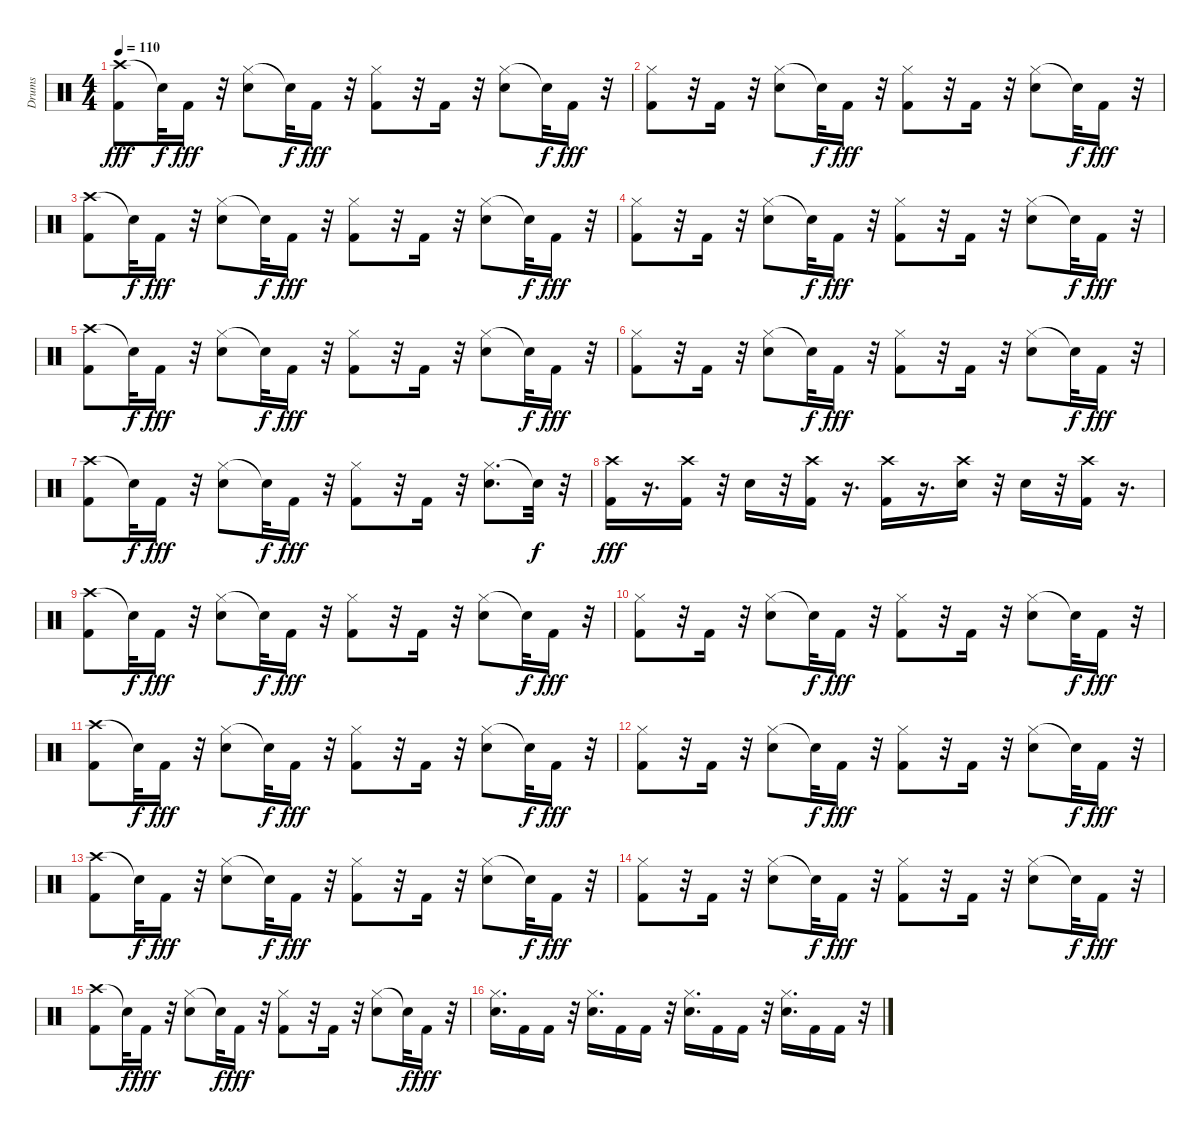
\track ("Drums" "Drums") {instrument percussion}
\staff {score}
\articulation defaults
\ts (4 4)
\tempo 110
\clef neutral
\ks c
("Crash high (hit)" "Kick (hit) 2").8{dy fff} "Snare (hit)"{t}.32{dy f} "Kick (hit) 2".16{dy fff} r.32 ("Hi-Hat (closed)" "Snare (hit) 2").8 "Snare (hit)"{t}.32{dy f} "Kick (hit) 2".16{dy fff} r.32 ("Kick (hit) 2" "Hi-Hat (closed)").8 r.32 "Kick (hit) 2".16 r.32 ("Hi-Hat (closed)" "Snare (hit) 2").8 "Snare (hit)"{t}.32{dy f} "Kick (hit) 2".16{dy fff} r.32 |
("Kick (hit) 2" "Hi-Hat (closed)").8 r.32 "Kick (hit) 2".16 r.32 ("Hi-Hat (closed)" "Snare (hit) 2").8 "Snare (hit)"{t}.32{dy f} "Kick (hit) 2".16{dy fff} r.32 ("Kick (hit) 2" "Hi-Hat (closed)").8 r.32 "Kick (hit) 2".16 r.32 ("Hi-Hat (closed)" "Snare (hit) 2").8 "Snare (hit)"{t}.32{dy f} "Kick (hit) 2".16{dy fff} r.32 |
("Crash high (hit)" "Kick (hit) 2").8 "Snare (hit)"{t}.32{dy f} "Kick (hit) 2".16{dy fff} r.32 ("Hi-Hat (closed)" "Snare (hit) 2").8 "Snare (hit)"{t}.32{dy f} "Kick (hit) 2".16{dy fff} r.32 ("Kick (hit) 2" "Hi-Hat (closed)").8 r.32 "Kick (hit) 2".16 r.32 ("Hi-Hat (closed)" "Snare (hit) 2").8 "Snare (hit)"{t}.32{dy f} "Kick (hit) 2".16{dy fff} r.32 |
("Kick (hit) 2" "Hi-Hat (closed)").8 r.32 "Kick (hit) 2".16 r.32 ("Hi-Hat (closed)" "Snare (hit) 2").8 "Snare (hit)"{t}.32{dy f} "Kick (hit) 2".16{dy fff} r.32 ("Kick (hit) 2" "Hi-Hat (closed)").8 r.32 "Kick (hit) 2".16 r.32 ("Hi-Hat (closed)" "Snare (hit) 2").8 "Snare (hit)"{t}.32{dy f} "Kick (hit) 2".16{dy fff} r.32 |
("Crash high (hit)" "Kick (hit) 2").8 "Snare (hit)"{t}.32{dy f} "Kick (hit) 2".16{dy fff} r.32 ("Hi-Hat (closed)" "Snare (hit) 2").8 "Snare (hit)"{t}.32{dy f} "Kick (hit) 2".16{dy fff} r.32 ("Kick (hit) 2" "Hi-Hat (closed)").8 r.32 "Kick (hit) 2".16 r.32 ("Hi-Hat (closed)" "Snare (hit) 2").8 "Snare (hit)"{t}.32{dy f} "Kick (hit) 2".16{dy fff} r.32 |
("Kick (hit) 2" "Hi-Hat (closed)").8 r.32 "Kick (hit) 2".16 r.32 ("Hi-Hat (closed)" "Snare (hit) 2").8 "Snare (hit)"{t}.32{dy f} "Kick (hit) 2".16{dy fff} r.32 ("Kick (hit) 2" "Hi-Hat (closed)").8 r.32 "Kick (hit) 2".16 r.32 ("Hi-Hat (closed)" "Snare (hit) 2").8 "Snare (hit)"{t}.32{dy f} "Kick (hit) 2".16{dy fff} r.32 |
("Crash high (hit)" "Kick (hit) 2").8 "Snare (hit)"{t}.32{dy f} "Kick (hit) 2".16{dy fff} r.32 ("Hi-Hat (closed)" "Snare (hit) 2").8 "Snare (hit)"{t}.32{dy f} "Kick (hit) 2".16{dy fff} r.32 ("Kick (hit) 2" "Hi-Hat (closed)").8 r.32 "Kick (hit) 2".16 r.32 ("Hi-Hat (closed)" "Snare (hit) 2").8{d} "Snare (hit)"{t}.32{dy f} r.32 |
("Kick (hit) 2" "Crash high (hit)").16{dy fff} r.16{d} ("Kick (hit) 2" "Crash high (hit)").16 r.32 "Snare (hit) 2".16 r.32 ("Kick (hit) 2" "Crash high (hit)").16 r.16{d} ("Kick (hit) 2" "Crash high (hit)").16 r.16{d} ("Snare (hit)" "Crash high (hit)").16 r.32 "Snare (hit) 2".16 r.32 ("Kick (hit) 2" "Crash high (hit)").16 r.16{d} |
("Crash high (hit)" "Kick (hit) 2").8 "Snare (hit)"{t}.32{dy f} "Kick (hit) 2".16{dy fff} r.32 ("Hi-Hat (closed)" "Snare (hit) 2").8 "Snare (hit)"{t}.32{dy f} "Kick (hit) 2".16{dy fff} r.32 ("Kick (hit) 2" "Hi-Hat (closed)").8 r.32 "Kick (hit) 2".16 r.32 ("Hi-Hat (closed)" "Snare (hit) 2").8 "Snare (hit)"{t}.32{dy f} "Kick (hit) 2".16{dy fff} r.32 |
("Kick (hit) 2" "Hi-Hat (closed)").8 r.32 "Kick (hit) 2".16 r.32 ("Hi-Hat (closed)" "Snare (hit) 2").8 "Snare (hit)"{t}.32{dy f} "Kick (hit) 2".16{dy fff} r.32 ("Kick (hit) 2" "Hi-Hat (closed)").8 r.32 "Kick (hit) 2".16 r.32 ("Hi-Hat (closed)" "Snare (hit) 2").8 "Snare (hit)"{t}.32{dy f} "Kick (hit) 2".16{dy fff} r.32 |
("Crash high (hit)" "Kick (hit) 2").8 "Snare (hit)"{t}.32{dy f} "Kick (hit) 2".16{dy fff} r.32 ("Hi-Hat (closed)" "Snare (hit) 2").8 "Snare (hit)"{t}.32{dy f} "Kick (hit) 2".16{dy fff} r.32 ("Kick (hit) 2" "Hi-Hat (closed)").8 r.32 "Kick (hit) 2".16 r.32 ("Hi-Hat (closed)" "Snare (hit) 2").8 "Snare (hit)"{t}.32{dy f} "Kick (hit) 2".16{dy fff} r.32 |
("Kick (hit) 2" "Hi-Hat (closed)").8 r.32 "Kick (hit) 2".16 r.32 ("Hi-Hat (closed)" "Snare (hit) 2").8 "Snare (hit)"{t}.32{dy f} "Kick (hit) 2".16{dy fff} r.32 ("Kick (hit) 2" "Hi-Hat (closed)").8 r.32 "Kick (hit) 2".16 r.32 ("Hi-Hat (closed)" "Snare (hit) 2").8 "Snare (hit)"{t}.32{dy f} "Kick (hit) 2".16{dy fff} r.32 |
("Crash high (hit)" "Kick (hit) 2").8 "Snare (hit)"{t}.32{dy f} "Kick (hit) 2".16{dy fff} r.32 ("Hi-Hat (closed)" "Snare (hit) 2").8 "Snare (hit)"{t}.32{dy f} "Kick (hit) 2".16{dy fff} r.32 ("Kick (hit) 2" "Hi-Hat (closed)").8 r.32 "Kick (hit) 2".16 r.32 ("Hi-Hat (closed)" "Snare (hit) 2").8 "Snare (hit)"{t}.32{dy f} "Kick (hit) 2".16{dy fff} r.32 |
("Kick (hit) 2" "Hi-Hat (closed)").8 r.32 "Kick (hit) 2".16 r.32 ("Hi-Hat (closed)" "Snare (hit) 2").8 "Snare (hit)"{t}.32{dy f} "Kick (hit) 2".16{dy fff} r.32 ("Kick (hit) 2" "Hi-Hat (closed)").8 r.32 "Kick (hit) 2".16 r.32 ("Hi-Hat (closed)" "Snare (hit) 2").8 "Snare (hit)"{t}.32{dy f} "Kick (hit) 2".16{dy fff} r.32 |
("Crash high (hit)" "Kick (hit) 2").8 "Snare (hit)"{t}.32{dy f} "Kick (hit) 2".16{dy fff} r.32 ("Hi-Hat (closed)" "Snare (hit) 2").8 "Snare (hit)"{t}.32{dy f} "Kick (hit) 2".16{dy fff} r.32 ("Kick (hit) 2" "Hi-Hat (closed)").8 r.32 "Kick (hit) 2".16 r.32 ("Hi-Hat (closed)" "Snare (hit) 2").8 "Snare (hit)"{t}.32{dy f} "Kick (hit) 2".16{dy fff} r.32 |
("Hi-Hat (closed)" "Snare (hit) 2").16{d} "Kick (hit) 2".16 "Kick (hit) 2".16 r.32 ("Hi-Hat (closed)" "Snare (hit) 2").16{d} "Kick (hit) 2".16 "Kick (hit) 2".16 r.32 ("Hi-Hat (closed)" "Snare (hit) 2").16{d} "Kick (hit) 2".16 "Kick (hit) 2".16 r.32 ("Hi-Hat (closed)" "Snare (hit) 2").16{d} "Kick (hit) 2".16 "Kick (hit) 2".16 r.32
